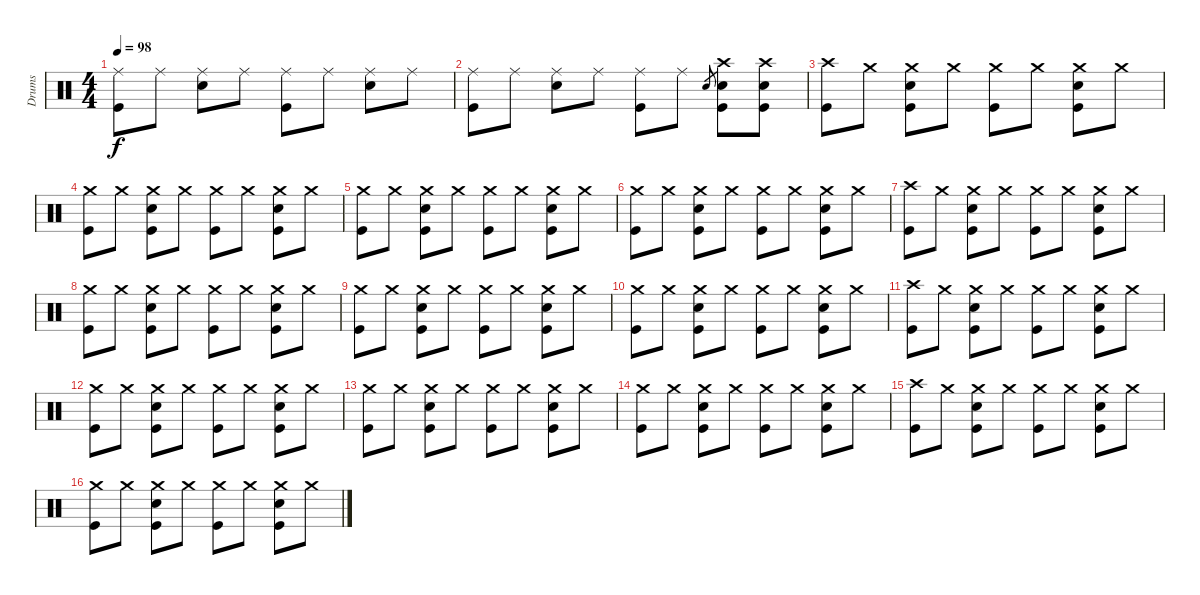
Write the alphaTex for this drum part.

\track ("Drums" "Drums") {instrument percussion}
\staff {score}
\articulation defaults
\ts (4 4)
\tempo 98
\clef neutral
\ks c
("Ride (middle)" "Kick (hit)").8{dy f} "Ride (middle)".8 ("Ride (middle)" "Electric Snare (hit)").8 "Ride (middle)".8 ("Ride (middle)" "Kick (hit)").8 "Ride (middle)".8 ("Ride (middle)" "Electric Snare (hit)").8 "Ride (middle)".8 |
("Ride (middle)" "Kick (hit)").8 "Ride (middle)".8 ("Ride (middle)" "Electric Snare (hit)").8 "Ride (middle)".8 ("Ride (middle)" "Kick (hit)").8 "Ride (middle)".8 "Electric Snare (hit)".8{gr} ("Crash high (hit)" "Electric Snare (hit)" "Kick (hit)").8 ("Crash high (hit)" "Electric Snare (hit)" "Kick (hit)").8 |
("Crash high (hit)" "Kick (hit)").8 "Crash medium (hit)".8 ("Crash medium (hit)" "Electric Snare (hit)" "Kick (hit)").8 "Crash medium (hit)".8 ("Crash medium (hit)" "Kick (hit)").8 "Crash medium (hit)".8 ("Crash medium (hit)" "Electric Snare (hit)" "Kick (hit)").8 "Crash medium (hit)".8 |
("Crash medium (hit)" "Kick (hit)").8 "Crash medium (hit)".8 ("Crash medium (hit)" "Electric Snare (hit)" "Kick (hit)").8 "Crash medium (hit)".8 ("Crash medium (hit)" "Kick (hit)").8 "Crash medium (hit)".8 ("Crash medium (hit)" "Electric Snare (hit)" "Kick (hit)").8 "Crash medium (hit)".8 |
("Crash medium (hit)" "Kick (hit)").8 "Crash medium (hit)".8 ("Crash medium (hit)" "Electric Snare (hit)" "Kick (hit)").8 "Crash medium (hit)".8 ("Crash medium (hit)" "Kick (hit)").8 "Crash medium (hit)".8 ("Crash medium (hit)" "Electric Snare (hit)" "Kick (hit)").8 "Crash medium (hit)".8 |
("Crash medium (hit)" "Kick (hit)").8 "Crash medium (hit)".8 ("Crash medium (hit)" "Electric Snare (hit)" "Kick (hit)").8 "Crash medium (hit)".8 ("Crash medium (hit)" "Kick (hit)").8 "Crash medium (hit)".8 ("Crash medium (hit)" "Electric Snare (hit)" "Kick (hit)").8 "Crash medium (hit)".8 |
("Crash high (hit)" "Kick (hit)").8 "Crash medium (hit)".8 ("Crash medium (hit)" "Electric Snare (hit)" "Kick (hit)").8 "Crash medium (hit)".8 ("Crash medium (hit)" "Kick (hit)").8 "Crash medium (hit)".8 ("Crash medium (hit)" "Electric Snare (hit)" "Kick (hit)").8 "Crash medium (hit)".8 |
("Crash medium (hit)" "Kick (hit)").8 "Crash medium (hit)".8 ("Crash medium (hit)" "Electric Snare (hit)" "Kick (hit)").8 "Crash medium (hit)".8 ("Crash medium (hit)" "Kick (hit)").8 "Crash medium (hit)".8 ("Crash medium (hit)" "Electric Snare (hit)" "Kick (hit)").8 "Crash medium (hit)".8 |
("Crash medium (hit)" "Kick (hit)").8 "Crash medium (hit)".8 ("Crash medium (hit)" "Electric Snare (hit)" "Kick (hit)").8 "Crash medium (hit)".8 ("Crash medium (hit)" "Kick (hit)").8 "Crash medium (hit)".8 ("Crash medium (hit)" "Electric Snare (hit)" "Kick (hit)").8 "Crash medium (hit)".8 |
("Crash medium (hit)" "Kick (hit)").8 "Crash medium (hit)".8 ("Crash medium (hit)" "Electric Snare (hit)" "Kick (hit)").8 "Crash medium (hit)".8 ("Crash medium (hit)" "Kick (hit)").8 "Crash medium (hit)".8 ("Crash medium (hit)" "Electric Snare (hit)" "Kick (hit)").8 "Crash medium (hit)".8 |
("Crash high (hit)" "Kick (hit)").8 "Crash medium (hit)".8 ("Crash medium (hit)" "Electric Snare (hit)" "Kick (hit)").8 "Crash medium (hit)".8 ("Crash medium (hit)" "Kick (hit)").8 "Crash medium (hit)".8 ("Crash medium (hit)" "Electric Snare (hit)" "Kick (hit)").8 "Crash medium (hit)".8 |
("Crash medium (hit)" "Kick (hit)").8 "Crash medium (hit)".8 ("Crash medium (hit)" "Electric Snare (hit)" "Kick (hit)").8 "Crash medium (hit)".8 ("Crash medium (hit)" "Kick (hit)").8 "Crash medium (hit)".8 ("Crash medium (hit)" "Electric Snare (hit)" "Kick (hit)").8 "Crash medium (hit)".8 |
("Crash medium (hit)" "Kick (hit)").8 "Crash medium (hit)".8 ("Crash medium (hit)" "Electric Snare (hit)" "Kick (hit)").8 "Crash medium (hit)".8 ("Crash medium (hit)" "Kick (hit)").8 "Crash medium (hit)".8 ("Crash medium (hit)" "Electric Snare (hit)" "Kick (hit)").8 "Crash medium (hit)".8 |
("Crash medium (hit)" "Kick (hit)").8 "Crash medium (hit)".8 ("Crash medium (hit)" "Electric Snare (hit)" "Kick (hit)").8 "Crash medium (hit)".8 ("Crash medium (hit)" "Kick (hit)").8 "Crash medium (hit)".8 ("Crash medium (hit)" "Electric Snare (hit)" "Kick (hit)").8 "Crash medium (hit)".8 |
("Crash high (hit)" "Kick (hit)").8 "Crash medium (hit)".8 ("Crash medium (hit)" "Electric Snare (hit)" "Kick (hit)").8 "Crash medium (hit)".8 ("Crash medium (hit)" "Kick (hit)").8 "Crash medium (hit)".8 ("Crash medium (hit)" "Electric Snare (hit)" "Kick (hit)").8 "Crash medium (hit)".8 |
("Crash medium (hit)" "Kick (hit)").8 "Crash medium (hit)".8 ("Crash medium (hit)" "Electric Snare (hit)" "Kick (hit)").8 "Crash medium (hit)".8 ("Crash medium (hit)" "Kick (hit)").8 "Crash medium (hit)".8 ("Crash medium (hit)" "Electric Snare (hit)" "Kick (hit)").8 "Crash medium (hit)".8
